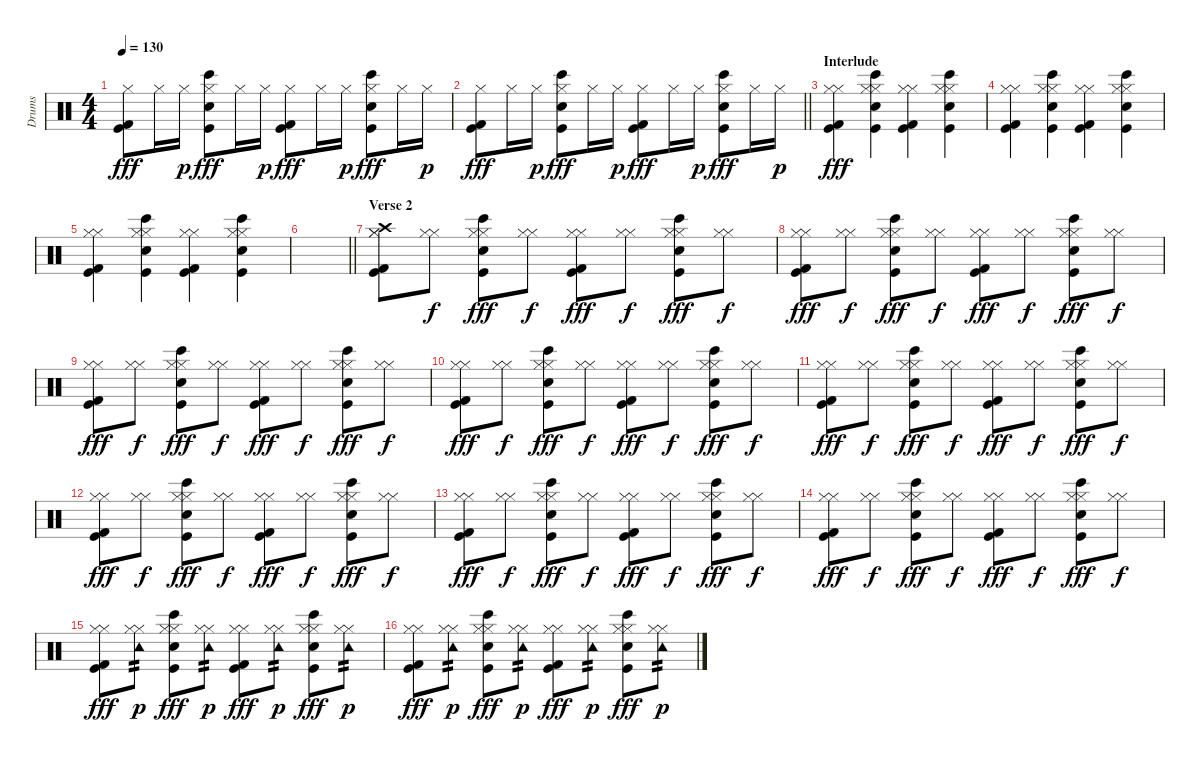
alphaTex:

\track ("Drums" "Drums") {instrument percussion}
\staff {score}
\articulation defaults
\ts (4 4)
\tempo 130
\clef neutral
\ks c
("Hi-Hat (closed)" "Kick (hit) 2" "Kick (hit)").8{dy fff} "Hi-Hat (closed)".16 "Hi-Hat (closed)".16{dy p} ("Bongo High (hit)" "Hi-Hat (closed)" "Snare (hit) 2" "Kick (hit)").8{dy fff} "Hi-Hat (closed)".16 "Hi-Hat (closed)".16{dy p} ("Hi-Hat (closed)" "Kick (hit) 2" "Kick (hit)").8{dy fff} "Hi-Hat (closed)".16 "Hi-Hat (closed)".16{dy p} ("Bongo High (hit)" "Hi-Hat (closed)" "Snare (hit) 2" "Kick (hit)").8{dy fff} "Hi-Hat (closed)".16 "Hi-Hat (closed)".16{dy p} |
\barLineRight lightlight
("Hi-Hat (closed)" "Kick (hit) 2" "Kick (hit)").8{dy fff} "Hi-Hat (closed)".16 "Hi-Hat (closed)".16{dy p} ("Bongo High (hit)" "Hi-Hat (closed)" "Snare (hit) 2" "Kick (hit)").8{dy fff} "Hi-Hat (closed)".16 "Hi-Hat (closed)".16{dy p} ("Hi-Hat (closed)" "Kick (hit) 2" "Kick (hit)").8{dy fff} "Hi-Hat (closed)".16 "Hi-Hat (closed)".16{dy p} ("Bongo High (hit)" "Hi-Hat (closed)" "Snare (hit) 2" "Kick (hit)").8{dy fff} "Hi-Hat (closed)".16 "Hi-Hat (closed)".16{dy p} |
\section ("" "Interlude")
("Hi-Hat (closed)" "Hi-Hat (closed)" "Kick (hit) 2" "Kick (hit)").4{dy fff} ("Hi-Hat (closed)" "Bongo High (hit)" "Hi-Hat (closed)" "Snare (hit) 2" "Kick (hit)").4 ("Hi-Hat (closed)" "Hi-Hat (closed)" "Kick (hit) 2" "Kick (hit)").4 ("Hi-Hat (closed)" "Bongo High (hit)" "Hi-Hat (closed)" "Snare (hit) 2" "Kick (hit)").4 |
("Hi-Hat (closed)" "Hi-Hat (closed)" "Kick (hit) 2" "Kick (hit)").4 ("Hi-Hat (closed)" "Bongo High (hit)" "Hi-Hat (closed)" "Snare (hit) 2" "Kick (hit)").4 ("Hi-Hat (closed)" "Hi-Hat (closed)" "Kick (hit) 2" "Kick (hit)").4 ("Hi-Hat (closed)" "Bongo High (hit)" "Hi-Hat (closed)" "Snare (hit) 2" "Kick (hit)").4 |
("Hi-Hat (closed)" "Hi-Hat (closed)" "Kick (hit) 2" "Kick (hit)").4 ("Hi-Hat (closed)" "Bongo High (hit)" "Hi-Hat (closed)" "Snare (hit) 2" "Kick (hit)").4 ("Hi-Hat (closed)" "Hi-Hat (closed)" "Kick (hit) 2" "Kick (hit)").4 ("Hi-Hat (closed)" "Bongo High (hit)" "Hi-Hat (closed)" "Snare (hit) 2" "Kick (hit)").4 |
\barLineRight lightlight
|
\section ("" "Verse 2")
("Crash high (hit)" "Hi-Hat (closed)" "Hi-Hat (closed)" "Kick (hit) 2" "Kick (hit)").8 ("Hi-Hat (closed)" "Hi-Hat (closed)").8{dy f} ("Hi-Hat (closed)" "Bongo High (hit)" "Hi-Hat (closed)" "Snare (hit) 2" "Kick (hit)").8{dy fff} ("Hi-Hat (closed)" "Hi-Hat (closed)").8{dy f} ("Hi-Hat (closed)" "Hi-Hat (closed)" "Kick (hit) 2" "Kick (hit)").8{dy fff} ("Hi-Hat (closed)" "Hi-Hat (closed)").8{dy f} ("Hi-Hat (closed)" "Bongo High (hit)" "Hi-Hat (closed)" "Snare (hit) 2" "Kick (hit)").8{dy fff} ("Hi-Hat (closed)" "Hi-Hat (closed)").8{dy f} |
("Hi-Hat (closed)" "Hi-Hat (closed)" "Kick (hit) 2" "Kick (hit)").8{dy fff} ("Hi-Hat (closed)" "Hi-Hat (closed)").8{dy f} ("Hi-Hat (closed)" "Bongo High (hit)" "Hi-Hat (closed)" "Snare (hit) 2" "Kick (hit)").8{dy fff} ("Hi-Hat (closed)" "Hi-Hat (closed)").8{dy f} ("Hi-Hat (closed)" "Hi-Hat (closed)" "Kick (hit) 2" "Kick (hit)").8{dy fff} ("Hi-Hat (closed)" "Hi-Hat (closed)").8{dy f} ("Hi-Hat (closed)" "Bongo High (hit)" "Hi-Hat (closed)" "Snare (hit) 2" "Kick (hit)").8{dy fff} ("Hi-Hat (closed)" "Hi-Hat (closed)").8{dy f} |
("Hi-Hat (closed)" "Hi-Hat (closed)" "Kick (hit) 2" "Kick (hit)").8{dy fff} ("Hi-Hat (closed)" "Hi-Hat (closed)").8{dy f} ("Hi-Hat (closed)" "Bongo High (hit)" "Hi-Hat (closed)" "Snare (hit) 2" "Kick (hit)").8{dy fff} ("Hi-Hat (closed)" "Hi-Hat (closed)").8{dy f} ("Hi-Hat (closed)" "Hi-Hat (closed)" "Kick (hit) 2" "Kick (hit)").8{dy fff} ("Hi-Hat (closed)" "Hi-Hat (closed)").8{dy f} ("Hi-Hat (closed)" "Bongo High (hit)" "Hi-Hat (closed)" "Snare (hit) 2" "Kick (hit)").8{dy fff} ("Hi-Hat (closed)" "Hi-Hat (closed)").8{dy f} |
("Hi-Hat (closed)" "Hi-Hat (closed)" "Kick (hit) 2" "Kick (hit)").8{dy fff} ("Hi-Hat (closed)" "Hi-Hat (closed)").8{dy f} ("Hi-Hat (closed)" "Bongo High (hit)" "Hi-Hat (closed)" "Snare (hit) 2" "Kick (hit)").8{dy fff} ("Hi-Hat (closed)" "Hi-Hat (closed)").8{dy f} ("Hi-Hat (closed)" "Hi-Hat (closed)" "Kick (hit) 2" "Kick (hit)").8{dy fff} ("Hi-Hat (closed)" "Hi-Hat (closed)").8{dy f} ("Hi-Hat (closed)" "Bongo High (hit)" "Hi-Hat (closed)" "Snare (hit) 2" "Kick (hit)").8{dy fff} ("Hi-Hat (closed)" "Hi-Hat (closed)").8{dy f} |
("Hi-Hat (closed)" "Hi-Hat (closed)" "Kick (hit) 2" "Kick (hit)").8{dy fff} ("Hi-Hat (closed)" "Hi-Hat (closed)").8{dy f} ("Hi-Hat (closed)" "Bongo High (hit)" "Hi-Hat (closed)" "Snare (hit) 2" "Kick (hit)").8{dy fff} ("Hi-Hat (closed)" "Hi-Hat (closed)").8{dy f} ("Hi-Hat (closed)" "Hi-Hat (closed)" "Kick (hit) 2" "Kick (hit)").8{dy fff} ("Hi-Hat (closed)" "Hi-Hat (closed)").8{dy f} ("Hi-Hat (closed)" "Bongo High (hit)" "Hi-Hat (closed)" "Snare (hit) 2" "Kick (hit)").8{dy fff} ("Hi-Hat (closed)" "Hi-Hat (closed)").8{dy f} |
("Hi-Hat (closed)" "Hi-Hat (closed)" "Kick (hit) 2" "Kick (hit)").8{dy fff} ("Hi-Hat (closed)" "Hi-Hat (closed)").8{dy f} ("Hi-Hat (closed)" "Bongo High (hit)" "Hi-Hat (closed)" "Snare (hit) 2" "Kick (hit)").8{dy fff} ("Hi-Hat (closed)" "Hi-Hat (closed)").8{dy f} ("Hi-Hat (closed)" "Hi-Hat (closed)" "Kick (hit) 2" "Kick (hit)").8{dy fff} ("Hi-Hat (closed)" "Hi-Hat (closed)").8{dy f} ("Hi-Hat (closed)" "Bongo High (hit)" "Hi-Hat (closed)" "Snare (hit) 2" "Kick (hit)").8{dy fff} ("Hi-Hat (closed)" "Hi-Hat (closed)").8{dy f} |
("Hi-Hat (closed)" "Hi-Hat (closed)" "Kick (hit) 2" "Kick (hit)").8{dy fff} ("Hi-Hat (closed)" "Hi-Hat (closed)").8{dy f} ("Hi-Hat (closed)" "Bongo High (hit)" "Hi-Hat (closed)" "Snare (hit) 2" "Kick (hit)").8{dy fff} ("Hi-Hat (closed)" "Hi-Hat (closed)").8{dy f} ("Hi-Hat (closed)" "Hi-Hat (closed)" "Kick (hit) 2" "Kick (hit)").8{dy fff} ("Hi-Hat (closed)" "Hi-Hat (closed)").8{dy f} ("Hi-Hat (closed)" "Bongo High (hit)" "Hi-Hat (closed)" "Snare (hit) 2" "Kick (hit)").8{dy fff} ("Hi-Hat (closed)" "Hi-Hat (closed)").8{dy f} |
("Hi-Hat (closed)" "Hi-Hat (closed)" "Kick (hit) 2" "Kick (hit)").8{dy fff} ("Hi-Hat (closed)" "Hi-Hat (closed)").8{dy f} ("Hi-Hat (closed)" "Bongo High (hit)" "Hi-Hat (closed)" "Snare (hit) 2" "Kick (hit)").8{dy fff} ("Hi-Hat (closed)" "Hi-Hat (closed)").8{dy f} ("Hi-Hat (closed)" "Hi-Hat (closed)" "Kick (hit) 2" "Kick (hit)").8{dy fff} ("Hi-Hat (closed)" "Hi-Hat (closed)").8{dy f} ("Hi-Hat (closed)" "Bongo High (hit)" "Hi-Hat (closed)" "Snare (hit) 2" "Kick (hit)").8{dy fff} ("Hi-Hat (closed)" "Hi-Hat (closed)").8{dy f} |
("Hi-Hat (closed)" "Hi-Hat (closed)" "Kick (hit) 2" "Kick (hit)").8{dy fff} ("Tambourine (hit)" "Hi-Hat (closed)" "Hi-Hat (closed)").8{tp 2 dy p} ("Hi-Hat (closed)" "Bongo High (hit)" "Hi-Hat (closed)" "Snare (hit) 2" "Kick (hit)").8{dy fff} ("Tambourine (hit)" "Hi-Hat (closed)" "Hi-Hat (closed)").8{tp 2 dy p} ("Hi-Hat (closed)" "Hi-Hat (closed)" "Kick (hit) 2" "Kick (hit)").8{dy fff} ("Tambourine (hit)" "Hi-Hat (closed)" "Hi-Hat (closed)").8{tp 2 dy p} ("Hi-Hat (closed)" "Bongo High (hit)" "Hi-Hat (closed)" "Snare (hit) 2" "Kick (hit)").8{dy fff} ("Tambourine (hit)" "Hi-Hat (closed)" "Hi-Hat (closed)").8{tp 2 dy p} |
("Hi-Hat (closed)" "Hi-Hat (closed)" "Kick (hit) 2" "Kick (hit)").8{dy fff} ("Tambourine (hit)" "Hi-Hat (closed)" "Hi-Hat (closed)").8{tp 2 dy p} ("Hi-Hat (closed)" "Bongo High (hit)" "Hi-Hat (closed)" "Snare (hit) 2" "Kick (hit)").8{dy fff} ("Tambourine (hit)" "Hi-Hat (closed)" "Hi-Hat (closed)").8{tp 2 dy p} ("Hi-Hat (closed)" "Hi-Hat (closed)" "Kick (hit) 2" "Kick (hit)").8{dy fff} ("Tambourine (hit)" "Hi-Hat (closed)" "Hi-Hat (closed)").8{tp 2 dy p} ("Hi-Hat (closed)" "Bongo High (hit)" "Hi-Hat (closed)" "Snare (hit) 2" "Kick (hit)").8{dy fff} ("Tambourine (hit)" "Hi-Hat (closed)" "Hi-Hat (closed)").8{tp 2 dy p}
